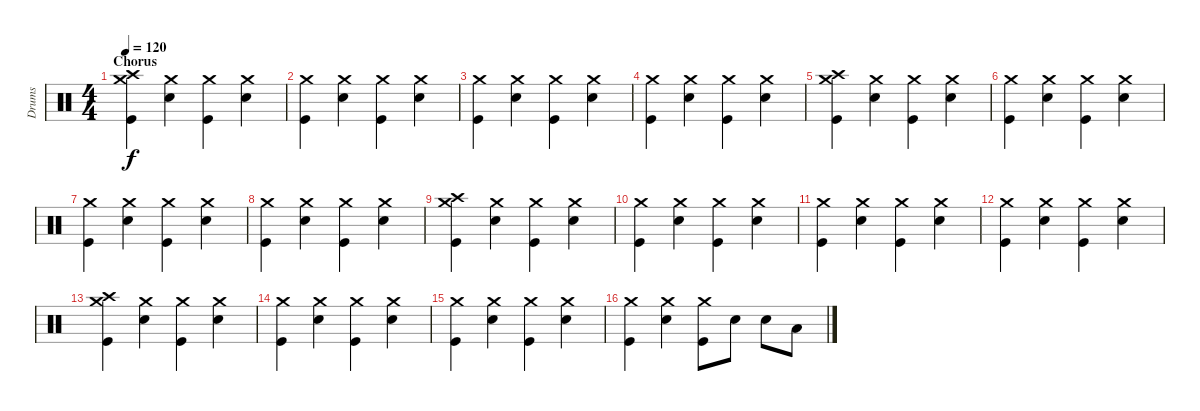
\track ("Drums" "Drums") {instrument percussion}
\staff {score}
\articulation defaults
\ts (4 4)
\section ("" "Chorus")
\tempo 120
\clef neutral
\ks c
("Crash high (hit)" "Crash medium (hit)" "Kick (hit)").4{dy f} ("Crash medium (hit)" "Electric Snare (hit)").4 ("Crash medium (hit)" "Kick (hit)").4 ("Crash medium (hit)" "Electric Snare (hit)").4 |
("Crash medium (hit)" "Kick (hit)").4 ("Crash medium (hit)" "Electric Snare (hit)").4 ("Crash medium (hit)" "Kick (hit)").4 ("Crash medium (hit)" "Electric Snare (hit)").4 |
("Crash medium (hit)" "Kick (hit)").4 ("Crash medium (hit)" "Electric Snare (hit)").4 ("Crash medium (hit)" "Kick (hit)").4 ("Crash medium (hit)" "Electric Snare (hit)").4 |
("Crash medium (hit)" "Kick (hit)").4 ("Crash medium (hit)" "Electric Snare (hit)").4 ("Crash medium (hit)" "Kick (hit)").4 ("Crash medium (hit)" "Electric Snare (hit)").4 |
("Crash high (hit)" "Crash medium (hit)" "Kick (hit)").4 ("Crash medium (hit)" "Electric Snare (hit)").4 ("Crash medium (hit)" "Kick (hit)").4 ("Crash medium (hit)" "Electric Snare (hit)").4 |
("Crash medium (hit)" "Kick (hit)").4 ("Crash medium (hit)" "Electric Snare (hit)").4 ("Crash medium (hit)" "Kick (hit)").4 ("Crash medium (hit)" "Electric Snare (hit)").4 |
("Crash medium (hit)" "Kick (hit)").4 ("Crash medium (hit)" "Electric Snare (hit)").4 ("Crash medium (hit)" "Kick (hit)").4 ("Crash medium (hit)" "Electric Snare (hit)").4 |
("Crash medium (hit)" "Kick (hit)").4 ("Crash medium (hit)" "Electric Snare (hit)").4 ("Crash medium (hit)" "Kick (hit)").4 ("Crash medium (hit)" "Electric Snare (hit)").4 |
("Crash high (hit)" "Crash medium (hit)" "Kick (hit)").4 ("Crash medium (hit)" "Electric Snare (hit)").4 ("Crash medium (hit)" "Kick (hit)").4 ("Crash medium (hit)" "Electric Snare (hit)").4 |
("Crash medium (hit)" "Kick (hit)").4 ("Crash medium (hit)" "Electric Snare (hit)").4 ("Crash medium (hit)" "Kick (hit)").4 ("Crash medium (hit)" "Electric Snare (hit)").4 |
("Crash medium (hit)" "Kick (hit)").4 ("Crash medium (hit)" "Electric Snare (hit)").4 ("Crash medium (hit)" "Kick (hit)").4 ("Crash medium (hit)" "Electric Snare (hit)").4 |
("Crash medium (hit)" "Kick (hit)").4 ("Crash medium (hit)" "Electric Snare (hit)").4 ("Crash medium (hit)" "Kick (hit)").4 ("Crash medium (hit)" "Electric Snare (hit)").4 |
("Crash high (hit)" "Crash medium (hit)" "Kick (hit)").4 ("Crash medium (hit)" "Electric Snare (hit)").4 ("Crash medium (hit)" "Kick (hit)").4 ("Crash medium (hit)" "Electric Snare (hit)").4 |
("Crash medium (hit)" "Kick (hit)").4 ("Crash medium (hit)" "Electric Snare (hit)").4 ("Crash medium (hit)" "Kick (hit)").4 ("Crash medium (hit)" "Electric Snare (hit)").4 |
("Crash medium (hit)" "Kick (hit)").4 ("Crash medium (hit)" "Electric Snare (hit)").4 ("Crash medium (hit)" "Kick (hit)").4 ("Crash medium (hit)" "Electric Snare (hit)").4 |
("Crash medium (hit)" "Kick (hit)").4 ("Crash medium (hit)" "Electric Snare (hit)").4 ("Crash medium (hit)" "Kick (hit)").8 "Electric Snare (hit)".8 "Electric Snare (hit)".8 "Low Tom (hit)".8
